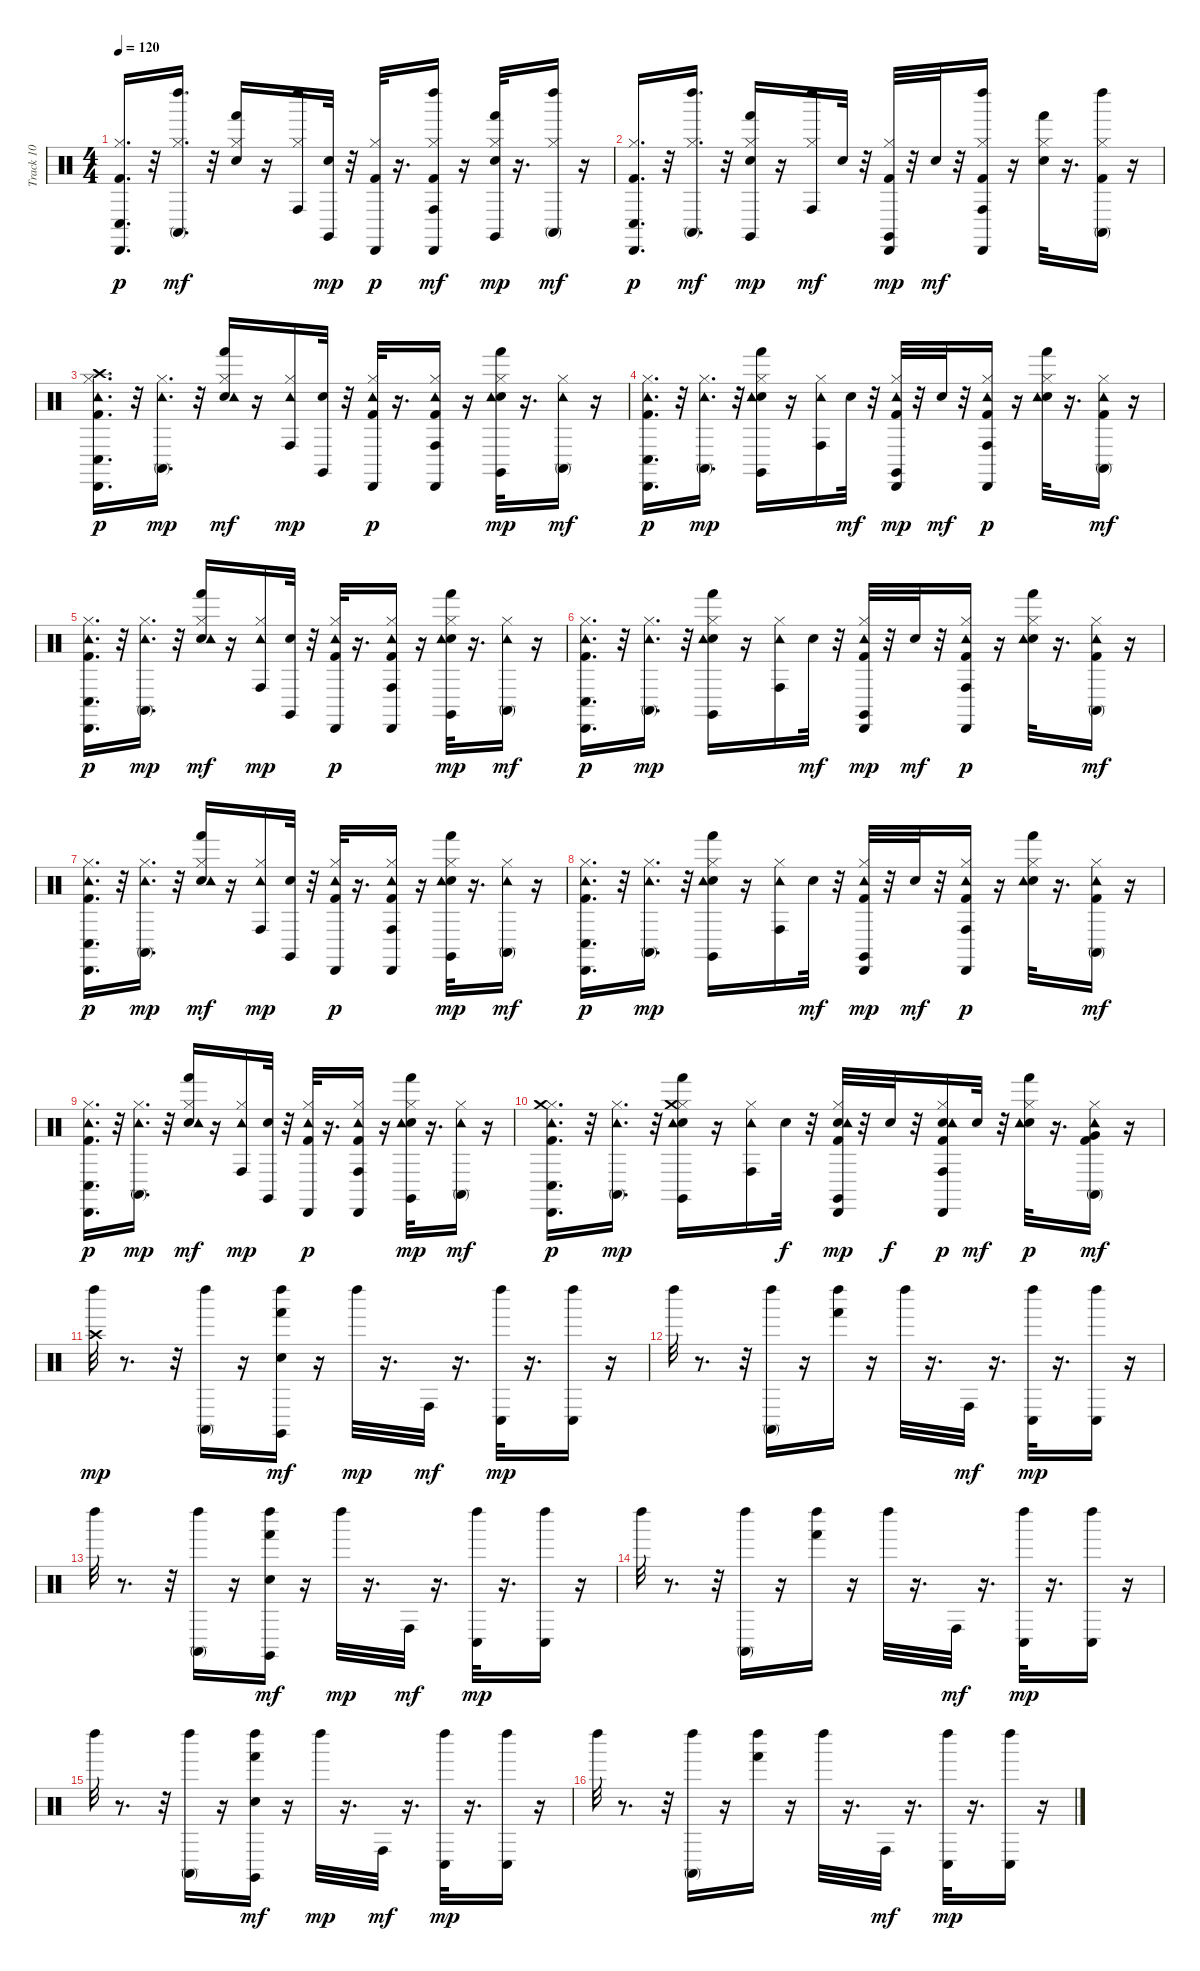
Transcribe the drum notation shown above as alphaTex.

\track ("Track 10" "Track 10") {instrument percussion}
\staff {score}
\articulation defaults
\ts (4 4)
\tempo 120
\clef neutral
\ks c
("Kick (hit) 2" "Hi-Hat (closed)" "Conga low (hit)" "Cabasa (hit)").16{d dy p} r.32 ("Hi-Hat (closed)" "Conga high (mute)" "Left Maraca (hit)").16{d dy mf} r.32 ("Electric Snare (hit)" "Hi-Hat (closed)" "Hand (hit)").16 r.16 ("Hi-Hat (closed)" "Conga high (hit)" "Left Maraca (hit)").16 ("Electric Snare (hit)" "Claves (hit)").32{dy mp} r.32 ("Kick (hit) 2" "Hi-Hat (closed)" "Cabasa (hit)").32{dy p} r.16{d} ("Kick (hit) 2" "Hi-Hat (closed)" "Conga high (hit)" "Cabasa (hit)" "Left Maraca (hit)").16{dy mf} r.16 ("Electric Snare (hit)" "Hi-Hat (closed)" "Hand (hit)" "Claves (hit)").32{dy mp} r.16{d} ("Hi-Hat (closed)" "Conga high (mute)" "Left Maraca (hit)").16{dy mf} r.16 |
("Kick (hit) 2" "Hi-Hat (closed)" "Conga low (hit)" "Cabasa (hit)").16{d dy p} r.32 ("Hi-Hat (closed)" "Conga high (mute)" "Left Maraca (hit)").16{d dy mf} r.32 ("Electric Snare (hit)" "Hi-Hat (closed)" "Hand (hit)" "Claves (hit)").16{dy mp} r.16 ("Hi-Hat (closed)" "Conga high (hit)" "Left Maraca (hit)").16{dy mf} "Electric Snare (hit)".32 r.32 ("Kick (hit) 2" "Hi-Hat (closed)" "Cabasa (hit)" "Claves (hit)").32{dy mp} r.32 "Electric Snare (hit)".32{dy mf} r.32 ("Kick (hit) 2" "Hi-Hat (closed)" "Conga high (hit)" "Cabasa (hit)" "Left Maraca (hit)").16 r.16 ("Electric Snare (hit)" "Hi-Hat (closed)" "Hand (hit)").32 r.16{d} ("Kick (hit) 2" "Hi-Hat (closed)" "Conga high (mute)" "Left Maraca (hit)").16 r.16 |
("Kick (hit) 2" "Hi-Hat (closed)" "Crash high (hit)" "Tambourine (hit)" "Conga low (hit)" "Cabasa (hit)").16{d dy p} r.32 ("Hi-Hat (closed)" "Tambourine (hit)" "Conga high (mute)").16{d dy mp} r.32 ("Electric Snare (hit)" "Hi-Hat (closed)" "Tambourine (hit)" "Hand (hit)").16{dy mf} r.16 ("Hi-Hat (closed)" "Tambourine (hit)" "Conga high (hit)").16{dy mp} ("Electric Snare (hit)" "Claves (hit)").32 r.32 ("Kick (hit) 2" "Hi-Hat (closed)" "Tambourine (hit)" "Cabasa (hit)").32{dy p} r.16{d} ("Kick (hit) 2" "Hi-Hat (closed)" "Tambourine (hit)" "Conga high (hit)" "Cabasa (hit)").16 r.16 ("Electric Snare (hit)" "Hi-Hat (closed)" "Tambourine (hit)" "Hand (hit)" "Claves (hit)").32{dy mp} r.16{d} ("Hi-Hat (closed)" "Tambourine (hit)" "Conga high (mute)").16{dy mf} r.16 |
("Kick (hit) 2" "Hi-Hat (closed)" "Tambourine (hit)" "Conga low (hit)" "Cabasa (hit)").16{d dy p} r.32 ("Hi-Hat (closed)" "Tambourine (hit)" "Conga high (mute)").16{d dy mp} r.32 ("Electric Snare (hit)" "Hi-Hat (closed)" "Tambourine (hit)" "Hand (hit)" "Claves (hit)").16 r.16 ("Hi-Hat (closed)" "Tambourine (hit)" "Conga high (hit)").16 "Electric Snare (hit)".32{dy mf} r.32 ("Kick (hit) 2" "Hi-Hat (closed)" "Tambourine (hit)" "Cabasa (hit)" "Claves (hit)").32{dy mp} r.32 "Electric Snare (hit)".32{dy mf} r.32 ("Kick (hit) 2" "Hi-Hat (closed)" "Tambourine (hit)" "Conga high (hit)" "Cabasa (hit)").16{dy p} r.16 ("Electric Snare (hit)" "Hi-Hat (closed)" "Tambourine (hit)" "Hand (hit)").32 r.16{d} ("Kick (hit) 2" "Hi-Hat (closed)" "Tambourine (hit)" "Conga high (mute)").16{dy mf} r.16 |
("Kick (hit) 2" "Hi-Hat (closed)" "Tambourine (hit)" "Conga low (hit)" "Cabasa (hit)").16{d dy p} r.32 ("Hi-Hat (closed)" "Tambourine (hit)" "Conga high (mute)").16{d dy mp} r.32 ("Electric Snare (hit)" "Hi-Hat (closed)" "Tambourine (hit)" "Hand (hit)").16{dy mf} r.16 ("Hi-Hat (closed)" "Tambourine (hit)" "Conga high (hit)").16{dy mp} ("Electric Snare (hit)" "Claves (hit)").32 r.32 ("Kick (hit) 2" "Hi-Hat (closed)" "Tambourine (hit)" "Cabasa (hit)").32{dy p} r.16{d} ("Kick (hit) 2" "Hi-Hat (closed)" "Tambourine (hit)" "Conga high (hit)" "Cabasa (hit)").16 r.16 ("Electric Snare (hit)" "Hi-Hat (closed)" "Tambourine (hit)" "Hand (hit)" "Claves (hit)").32{dy mp} r.16{d} ("Hi-Hat (closed)" "Tambourine (hit)" "Conga high (mute)").16{dy mf} r.16 |
("Kick (hit) 2" "Hi-Hat (closed)" "Tambourine (hit)" "Conga low (hit)" "Cabasa (hit)").16{d dy p} r.32 ("Hi-Hat (closed)" "Tambourine (hit)" "Conga high (mute)").16{d dy mp} r.32 ("Electric Snare (hit)" "Hi-Hat (closed)" "Tambourine (hit)" "Hand (hit)" "Claves (hit)").16 r.16 ("Hi-Hat (closed)" "Tambourine (hit)" "Conga high (hit)").16 "Electric Snare (hit)".32{dy mf} r.32 ("Kick (hit) 2" "Hi-Hat (closed)" "Tambourine (hit)" "Cabasa (hit)" "Claves (hit)").32{dy mp} r.32 "Electric Snare (hit)".32{dy mf} r.32 ("Kick (hit) 2" "Hi-Hat (closed)" "Tambourine (hit)" "Conga high (hit)" "Cabasa (hit)").16{dy p} r.16 ("Electric Snare (hit)" "Hi-Hat (closed)" "Tambourine (hit)" "Hand (hit)").32 r.16{d} ("Kick (hit) 2" "Hi-Hat (closed)" "Tambourine (hit)" "Conga high (mute)").16{dy mf} r.16 |
("Kick (hit) 2" "Hi-Hat (closed)" "Tambourine (hit)" "Conga low (hit)" "Cabasa (hit)").16{d dy p} r.32 ("Hi-Hat (closed)" "Tambourine (hit)" "Conga high (mute)").16{d dy mp} r.32 ("Electric Snare (hit)" "Hi-Hat (closed)" "Tambourine (hit)" "Hand (hit)").16{dy mf} r.16 ("Hi-Hat (closed)" "Tambourine (hit)" "Conga high (hit)").16{dy mp} ("Electric Snare (hit)" "Claves (hit)").32 r.32 ("Kick (hit) 2" "Hi-Hat (closed)" "Tambourine (hit)" "Cabasa (hit)").32{dy p} r.16{d} ("Kick (hit) 2" "Hi-Hat (closed)" "Tambourine (hit)" "Conga high (hit)" "Cabasa (hit)").16 r.16 ("Electric Snare (hit)" "Hi-Hat (closed)" "Tambourine (hit)" "Hand (hit)" "Claves (hit)").32{dy mp} r.16{d} ("Hi-Hat (closed)" "Tambourine (hit)" "Conga high (mute)").16{dy mf} r.16 |
("Kick (hit) 2" "Hi-Hat (closed)" "Tambourine (hit)" "Conga low (hit)" "Cabasa (hit)").16{d dy p} r.32 ("Hi-Hat (closed)" "Tambourine (hit)" "Conga high (mute)").16{d dy mp} r.32 ("Electric Snare (hit)" "Hi-Hat (closed)" "Tambourine (hit)" "Hand (hit)" "Claves (hit)").16 r.16 ("Hi-Hat (closed)" "Tambourine (hit)" "Conga high (hit)").16 "Electric Snare (hit)".32{dy mf} r.32 ("Kick (hit) 2" "Hi-Hat (closed)" "Tambourine (hit)" "Cabasa (hit)" "Claves (hit)").32{dy mp} r.32 "Electric Snare (hit)".32{dy mf} r.32 ("Kick (hit) 2" "Hi-Hat (closed)" "Tambourine (hit)" "Conga high (hit)" "Cabasa (hit)").16{dy p} r.16 ("Electric Snare (hit)" "Hi-Hat (closed)" "Tambourine (hit)" "Hand (hit)").32 r.16{d} ("Kick (hit) 2" "Hi-Hat (closed)" "Tambourine (hit)" "Conga high (mute)").16{dy mf} r.16 |
("Kick (hit) 2" "Hi-Hat (closed)" "Tambourine (hit)" "Conga low (hit)" "Cabasa (hit)").16{d dy p} r.32 ("Hi-Hat (closed)" "Tambourine (hit)" "Conga high (mute)").16{d dy mp} r.32 ("Electric Snare (hit)" "Hi-Hat (closed)" "Tambourine (hit)" "Hand (hit)").16{dy mf} r.16 ("Hi-Hat (closed)" "Tambourine (hit)" "Conga high (hit)").16{dy mp} ("Electric Snare (hit)" "Claves (hit)").32 r.32 ("Kick (hit) 2" "Hi-Hat (closed)" "Tambourine (hit)" "Cabasa (hit)").32{dy p} r.16{d} ("Kick (hit) 2" "Hi-Hat (closed)" "Tambourine (hit)" "Conga high (hit)" "Cabasa (hit)").16 r.16 ("Electric Snare (hit)" "Hi-Hat (closed)" "Tambourine (hit)" "Hand (hit)" "Claves (hit)").32{dy mp} r.16{d} ("Hi-Hat (closed)" "Tambourine (hit)" "Conga high (mute)").16{dy mf} r.16 |
("Kick (hit) 2" "Hi-Hat (closed)" "Tambourine (hit)" "Crash medium (hit)" "Conga low (hit)" "Cabasa (hit)").16{d dy p} r.32 ("Hi-Hat (closed)" "Tambourine (hit)" "Conga high (mute)").16{d dy mp} r.32 ("Electric Snare (hit)" "Hi-Hat (closed)" "Tambourine (hit)" "Crash medium (hit)" "Hand (hit)" "Claves (hit)").16 r.16 ("Hi-Hat (closed)" "Tambourine (hit)" "Conga high (hit)").16 "Electric Snare (hit)".32{dy f} r.32 ("Kick (hit) 2" "Electric Snare (hit)" "Hi-Hat (closed)" "Tambourine (hit)" "Cabasa (hit)" "Claves (hit)").32{dy mp} r.32 "Electric Snare (hit)".32{dy f} r.32 ("Kick (hit) 2" "Electric Snare (hit)" "Hi-Hat (closed)" "Tambourine (hit)" "Conga high (hit)" "Cabasa (hit)").16{dy p} "Electric Snare (hit)".32{dy mf} r.32 ("Electric Snare (hit)" "Hi-Hat (closed)" "Tambourine (hit)" "Hand (hit)").32{dy p} r.16{d} ("Kick (hit) 2" "Hi-Hat (closed)" "Very Low Tom (hit)" "Tambourine (hit)" "Conga high (mute)").16{dy mf} r.16 |
("Crash high (hit)" "Left Maraca (hit)").32{dy mp} r.8{d} r.32 ("Conga high (mute)" "Left Maraca (hit)").16 r.16 ("Snare (hit)" "Hand (hit)" "Left Maraca (hit)" "Claves (hit)").16{dy mf} r.16 "Left Maraca (hit)".32{dy mp} r.16{d} "Conga high (hit)".32{dy mf} r.16{d} ("Conga low (hit)" "Left Maraca (hit)").32{dy mp} r.16{d} ("Conga low (hit)" "Left Maraca (hit)").16 r.16 |
"Left Maraca (hit)".32 r.8{d} r.32 ("Conga high (mute)" "Left Maraca (hit)").16 r.16 ("Hand (hit)" "Left Maraca (hit)").16 r.16 "Left Maraca (hit)".32 r.16{d} "Conga high (hit)".32{dy mf} r.16{d} ("Conga low (hit)" "Left Maraca (hit)").32{dy mp} r.16{d} ("Conga low (hit)" "Left Maraca (hit)").16 r.16 |
"Left Maraca (hit)".32 r.8{d} r.32 ("Conga high (mute)" "Left Maraca (hit)").16 r.16 ("Snare (hit)" "Hand (hit)" "Left Maraca (hit)" "Claves (hit)").16{dy mf} r.16 "Left Maraca (hit)".32{dy mp} r.16{d} "Conga high (hit)".32{dy mf} r.16{d} ("Conga low (hit)" "Left Maraca (hit)").32{dy mp} r.16{d} ("Conga low (hit)" "Left Maraca (hit)").16 r.16 |
"Left Maraca (hit)".32 r.8{d} r.32 ("Conga high (mute)" "Left Maraca (hit)").16 r.16 ("Hand (hit)" "Left Maraca (hit)").16 r.16 "Left Maraca (hit)".32 r.16{d} "Conga high (hit)".32{dy mf} r.16{d} ("Conga low (hit)" "Left Maraca (hit)").32{dy mp} r.16{d} ("Conga low (hit)" "Left Maraca (hit)").16 r.16 |
"Left Maraca (hit)".32 r.8{d} r.32 ("Conga high (mute)" "Left Maraca (hit)").16 r.16 ("Snare (hit)" "Hand (hit)" "Left Maraca (hit)" "Claves (hit)").16{dy mf} r.16 "Left Maraca (hit)".32{dy mp} r.16{d} "Conga high (hit)".32{dy mf} r.16{d} ("Conga low (hit)" "Left Maraca (hit)").32{dy mp} r.16{d} ("Conga low (hit)" "Left Maraca (hit)").16 r.16 |
"Left Maraca (hit)".32 r.8{d} r.32 ("Conga high (mute)" "Left Maraca (hit)").16 r.16 ("Hand (hit)" "Left Maraca (hit)").16 r.16 "Left Maraca (hit)".32 r.16{d} "Conga high (hit)".32{dy mf} r.16{d} ("Conga low (hit)" "Left Maraca (hit)").32{dy mp} r.16{d} ("Conga low (hit)" "Left Maraca (hit)").16 r.16
